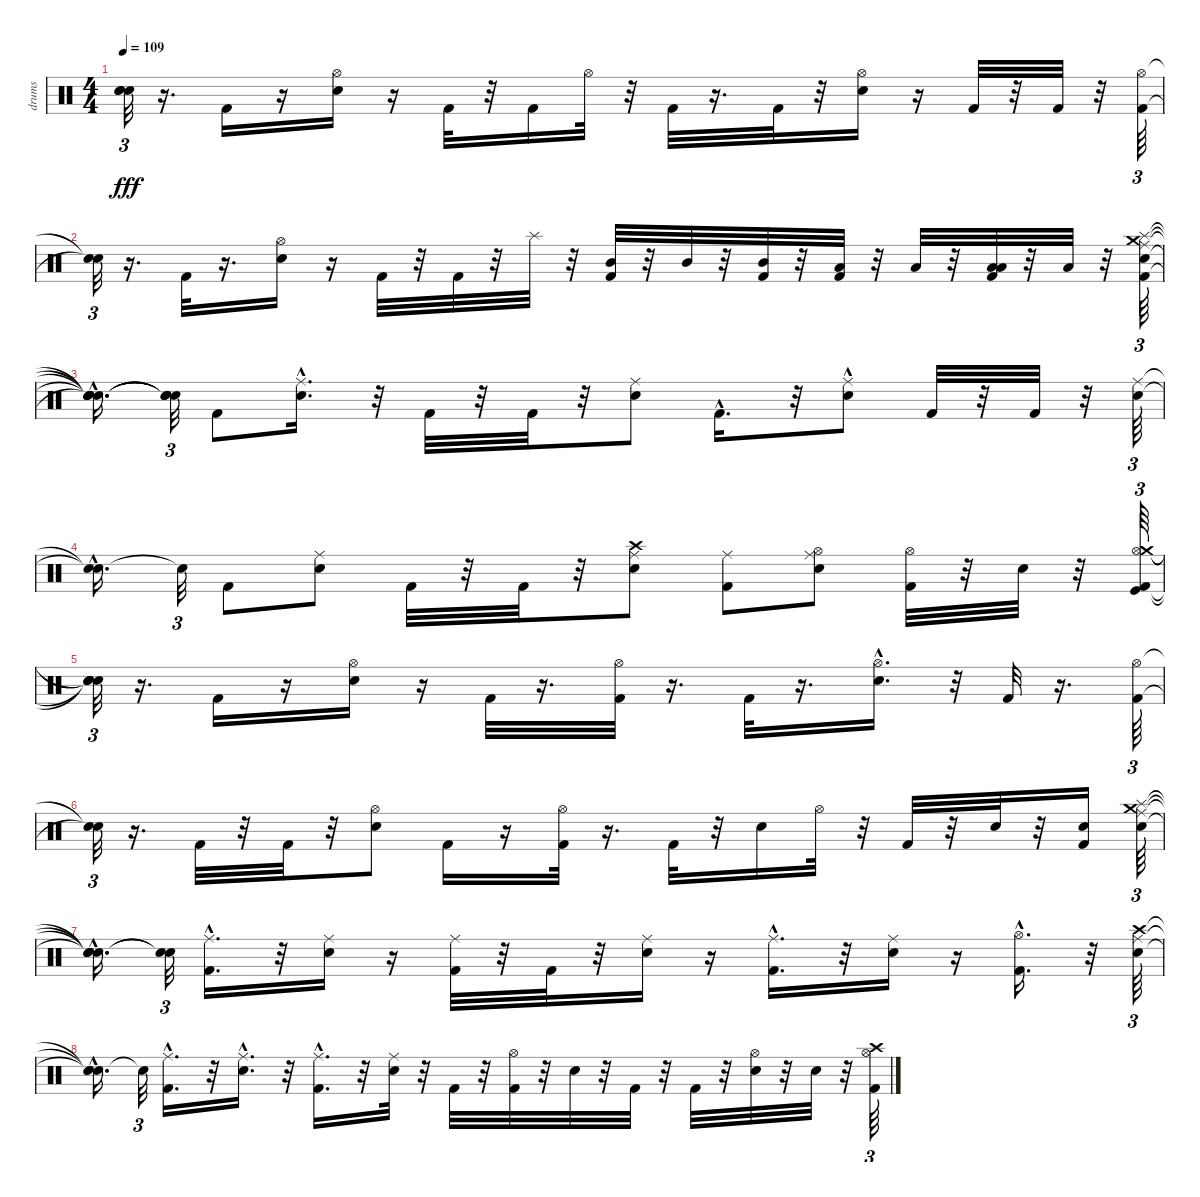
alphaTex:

\track ("drums" "drums") {instrument percussion}
\staff {score}
\articulation defaults
\ts (4 4)
\tempo 109
\clef neutral
\ks c
("Snare (hit)"{t} "Snare (hit)"{t} "Snare (hit)"{t}).32{tu (3 2) dy fff} r.16{d} "Kick (hit) 2".16 r.16 ("Snare (hit) 2" "Hi-Hat (open)").16 r.16 "Kick (hit) 2".32 r.32 "Kick (hit) 2".16 "Hi-Hat (open)".32 r.32 "Kick (hit) 2".32 r.16{d} "Kick (hit) 2".32 r.32 ("Snare (hit) 2" "Hi-Hat (open)").16 r.16 "Kick (hit) 2".32 r.32 "Kick (hit) 2".32 r.32 ("Kick (hit) 2" "Hi-Hat (open)").64{tu (3 2)} |
("Snare (hit)"{t} "Snare (hit)"{t}).32{tu (3 2)} r.16{d} "Kick (hit) 2".32 r.16{d} ("Snare (hit) 2" "Hi-Hat (open)").16 r.16 "Kick (hit) 2".32 r.32 "Kick (hit) 2".32 r.32 "Splash (hit)".32 r.32 ("Kick (hit) 2" "Mid Tom (hit)").32 r.32 "Mid Tom (hit)".32 r.32 ("Kick (hit) 2" "Mid Tom (hit)").32 r.32 ("Kick (hit) 2" "Low Tom (hit)").32 r.32 "Low Tom (hit)".32 r.32 ("Kick (hit) 2" "Low Floor Tom (hit)" "Low Floor Tom (hit)").32 r.32 "Low Floor Tom (hit)".32 r.32 ("Kick (hit) 2" "Snare (hit) 2" "Ride (middle)" "Splash (hit)" "Crash medium (hit)").64{tu (3 2)} |
("Snare (hit)"{t} "Snare (hit)"{hac t} "Snare (hit)"{hac t} "Snare (hit)"{hac t} "Snare (hit)"{hac t}).16{d} ("Snare (hit)"{t} "Snare (hit)"{t} "Snare (hit)"{t} "Snare (hit)"{t}).32{tu (3 2)} "Kick (hit) 2".8 ("Snare (hit) 2"{hac} "Ride (middle)"{hac}).16{d} r.32 "Kick (hit) 2".32 r.32 "Kick (hit) 2".32 r.32 ("Snare (hit) 2" "Ride (middle)").8 "Kick (hit) 2"{hac}.16{d} r.32 ("Snare (hit) 2" "Ride (middle)"{hac}).8 "Kick (hit) 2".32 r.32 "Kick (hit) 2".32 r.32 ("Snare (hit) 2" "Ride (middle)").64{tu (3 2)} |
("Snare (hit)"{hac t} "Snare (hit)"{t}).16{d} "Snare (hit)"{t}.32{tu (3 2)} "Kick (hit) 2".8 ("Snare (hit) 2" "Ride (middle)").8 "Kick (hit) 2".32 r.32 "Kick (hit) 2".32 r.32 ("Snare (hit) 2" "Crash high (hit)" "Ride (middle)").8 ("Kick (hit) 2" "Ride (middle)").8 ("Snare (hit) 2" "Hi-Hat (open)" "Ride (middle)").8 ("Kick (hit) 2" "Hi-Hat (open)").32 r.32 "Snare (hit) 2".32 r.32 ("Kick (hit)" "Kick (hit) 2" "Hi-Hat (open)" "Crash medium (hit)").64{tu (3 2)} |
("Snare (hit)"{t} "Snare (hit)"{t} "Snare (hit)"{t} "Snare (hit)"{t}).32{tu (3 2)} r.16{d} "Kick (hit) 2".16 r.16 ("Snare (hit) 2" "Hi-Hat (open)").16 r.16 "Kick (hit) 2".32 r.16{d} ("Kick (hit) 2" "Hi-Hat (open)").32 r.16{d} "Kick (hit) 2".32 r.16{d} ("Snare (hit) 2"{hac} "Hi-Hat (open)").16{d} r.32 "Kick (hit) 2".32 r.16{d} ("Kick (hit) 2" "Hi-Hat (open)").64{tu (3 2)} |
("Snare (hit)"{t} "Snare (hit)"{t}).32{tu (3 2)} r.16{d} "Kick (hit) 2".32 r.32 "Kick (hit) 2".32 r.32 ("Snare (hit) 2" "Hi-Hat (open)").8 "Kick (hit) 2".16 r.16 ("Kick (hit) 2" "Hi-Hat (open)").32 r.16{d} "Kick (hit) 2".32 r.32 "Snare (hit) 2".16 "Hi-Hat (open)".32 r.32 "Kick (hit) 2".32 r.32 "Snare (hit) 2".32 r.32 ("Kick (hit) 2" "Snare (hit) 2").16 ("Snare (hit) 2" "Ride (middle)" "Splash (hit)" "Crash medium (hit)").64{tu (3 2)} |
("Snare (hit)"{hac t} "Snare (hit)"{hac t} "Snare (hit)"{hac t} "Snare (hit)"{hac t}).16{d} ("Snare (hit)"{t} "Snare (hit)"{t}).32{tu (3 2)} ("Kick (hit) 2"{hac} "Ride (middle)").16{d} r.32 ("Snare (hit) 2" "Ride (middle)").16 r.16 ("Kick (hit) 2" "Ride (middle)").32 r.32 "Kick (hit) 2".32 r.32 ("Snare (hit) 2" "Ride (middle)").16 r.16 ("Kick (hit) 2"{hac} "Ride (middle)").16{d} r.32 ("Snare (hit) 2" "Ride (middle)").16 r.16 ("Kick (hit) 2" "Hi-Hat (open)"{hac}).16{d} r.32 ("Snare (hit) 2" "Crash high (hit)" "Ride (middle)").64{tu (3 2)} |
("Snare (hit)"{hac t} "Snare (hit)"{hac t} "Snare (hit)"{t}).16{d} "Snare (hit)"{t}.32{tu (3 2)} ("Kick (hit) 2"{hac} "Ride (middle)").16{d} r.32 ("Snare (hit) 2"{hac} "Ride (middle)").16{d} r.32 ("Kick (hit) 2"{hac} "Ride (middle)").16{d} r.32 ("Snare (hit) 2" "Ride (middle)").32 r.32 "Kick (hit) 2".32 r.32 ("Kick (hit) 2" "Hi-Hat (open)").32 r.32 "Snare (hit) 2".32 r.32 "Kick (hit) 2".32 r.32 "Kick (hit) 2".32 r.32 ("Snare (hit) 2" "Hi-Hat (open)").32 r.32 "Snare (hit) 2".32 r.32 ("Kick (hit) 2" "Hi-Hat (open)" "Crash high (hit)").64{tu (3 2)}
